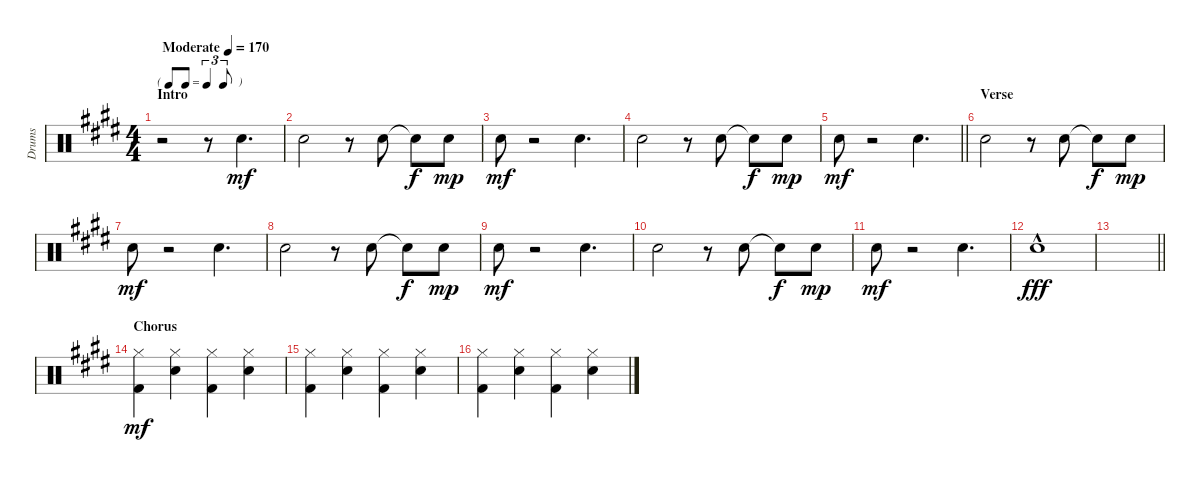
\track ("Drums" "Drums") {instrument percussion}
\staff {score}
\articulation defaults
\ts (4 4)
\tf triplet8th
\section ("" "Intro")
\tempo (170 "Moderate")
\clef neutral
\ks e
r.2{dy mf} r.8 "Snare (hit) 2".4{d} |
"Snare (hit) 2".2 r.8 "Snare (hit) 2".8 "Snare (hit) 2"{t}.8{dy f} "Snare (hit) 2".8{dy mp} |
"Snare (hit) 2".8{dy mf} r.2 "Snare (hit) 2".4{d} |
"Snare (hit) 2".2 r.8 "Snare (hit) 2".8 "Snare (hit) 2"{t}.8{dy f} "Snare (hit) 2".8{dy mp} |
\barLineRight lightlight "Snare (hit) 2".8{dy mf}
r.2 "Snare (hit) 2".4{d} |
\section ("" "Verse")
"Snare (hit) 2".2 r.8 "Snare (hit) 2".8 "Snare (hit) 2"{t}.8{dy f} "Snare (hit) 2".8{dy mp} |
"Snare (hit) 2".8{dy mf} r.2 "Snare (hit) 2".4{d} |
"Snare (hit) 2".2 r.8 "Snare (hit) 2".8 "Snare (hit) 2"{t}.8{dy f} "Snare (hit) 2".8{dy mp} |
"Snare (hit) 2".8{dy mf} r.2 "Snare (hit) 2".4{d} |
"Snare (hit) 2".2 r.8 "Snare (hit) 2".8 "Snare (hit) 2"{t}.8{dy f} "Snare (hit) 2".8{dy mp} |
"Snare (hit) 2".8{dy mf} r.2 "Snare (hit) 2".4{d} |
"Snare (hit) 2"{hac}.1{dy fff} |
\barLineRight lightlight
|
\section ("" "Chorus")
("Kick (hit) 2" "Hi-Hat (closed)").4{dy mf} ("Snare (hit) 2" "Hi-Hat (closed)").4 ("Kick (hit) 2" "Hi-Hat (closed)").4 ("Snare (hit) 2" "Hi-Hat (closed)").4 |
("Kick (hit) 2" "Hi-Hat (closed)").4 ("Snare (hit) 2" "Hi-Hat (closed)").4 ("Kick (hit) 2" "Hi-Hat (closed)").4 ("Snare (hit) 2" "Hi-Hat (closed)").4 |
("Kick (hit) 2" "Hi-Hat (closed)").4 ("Snare (hit) 2" "Hi-Hat (closed)").4 ("Kick (hit) 2" "Hi-Hat (closed)").4 ("Snare (hit) 2" "Hi-Hat (closed)").4
